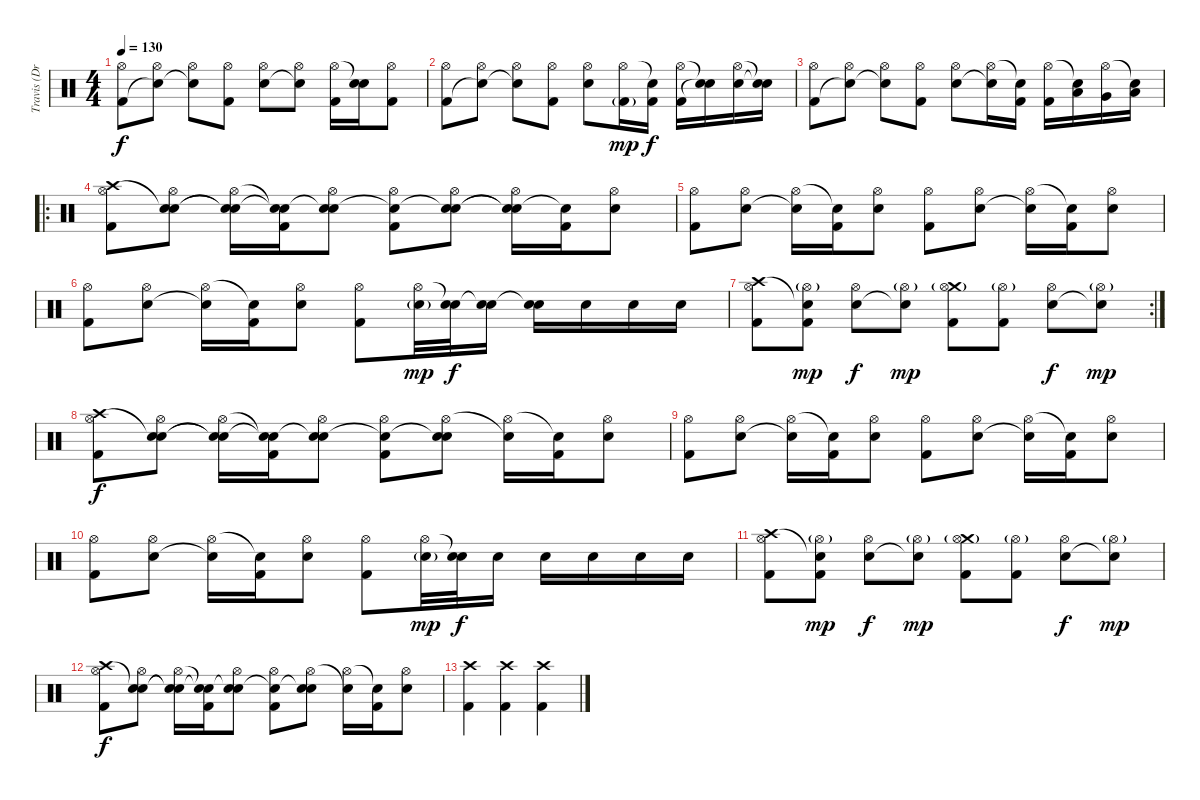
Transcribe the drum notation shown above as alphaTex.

\track ("Travis (Drums)" "Travis (Dr") {instrument percussion}
\staff {score}
\articulation defaults
\ts (4 4)
\tempo 130
\clef neutral
\ks c
("Hi-Hat (open)" "Kick (hit) 2").8{dy f} ("Hi-Hat (open)" "Snare (hit)"{t}).8 ("Hi-Hat (open)" "Snare (hit)"{t}).8 ("Hi-Hat (open)" "Kick (hit) 2").8 ("Hi-Hat (open)" "Electric Snare (hit)").8 ("Hi-Hat (open)" "Snare (hit)"{t}).8 ("Hi-Hat (open)" "Kick (hit) 2").16 ("Snare (hit)"{t} "Electric Snare (hit)").16 ("Hi-Hat (open)" "Kick (hit) 2").8 |
("Hi-Hat (open)" "Kick (hit) 2").8 ("Hi-Hat (open)" "Snare (hit)"{t}).8 ("Hi-Hat (open)" "Snare (hit)"{t}).8 ("Hi-Hat (open)" "Kick (hit) 2").8 ("Hi-Hat (open)" "Electric Snare (hit)").8 ("Hi-Hat (open)" "Kick (hit) 2"{g}).16{dy mp} ("Snare (hit)"{t} "Kick (hit) 2").16{dy f} ("Hi-Hat (open)" "Kick (hit) 2").16 ("Snare (hit)"{t} "Snare (hit)"{t}).16 ("Hi-Hat (open)" "Electric Snare (hit)").16 ("Snare (hit)"{t} "Snare (hit)"{t}).16 |
("Hi-Hat (open)" "Kick (hit) 2").8 ("Hi-Hat (open)" "Snare (hit)"{t}).8 ("Hi-Hat (open)" "Snare (hit)"{t}).8 ("Hi-Hat (open)" "Kick (hit) 2").8 ("Hi-Hat (open)" "Electric Snare (hit)").8 ("Hi-Hat (open)" "Snare (hit)"{t}).16 ("Snare (hit)"{t} "Kick (hit) 2").16 ("Hi-Hat (open)" "Kick (hit) 2").16 ("Snare (hit)"{t} "Low Tom (hit)").16 ("Hi-Hat (open)" "Very Low Tom (hit)").16 ("Snare (hit)"{t} "Low Floor Tom (hit)").16 |
\ro
("Crash high (hit)" "Hi-Hat (open)" "Kick (hit) 2").8 ("Snare (hit)"{t} "Hi-Hat (open)" "Electric Snare (hit)").8 ("Snare (hit)"{t} "Hi-Hat (open)" "Snare (hit)"{t}).16 ("Snare (hit)"{t} "Snare (hit)"{t} "Kick (hit) 2").16 ("Snare (hit)"{t} "Hi-Hat (open)" "Electric Snare (hit)").8 ("Snare (hit)"{t} "Hi-Hat (open)" "Kick (hit) 2").8 ("Snare (hit)"{t} "Hi-Hat (open)" "Electric Snare (hit)").8 ("Snare (hit)"{t} "Hi-Hat (open)" "Snare (hit)"{t}).16 ("Snare (hit)"{t} "Kick (hit) 2").16 ("Hi-Hat (open)" "Electric Snare (hit)").8 |
("Hi-Hat (open)" "Kick (hit) 2").8 ("Hi-Hat (open)" "Electric Snare (hit)").8 ("Hi-Hat (open)" "Snare (hit)"{t}).16 ("Snare (hit)"{t} "Kick (hit) 2").16 ("Hi-Hat (open)" "Electric Snare (hit)").8 ("Hi-Hat (open)" "Kick (hit) 2").8 ("Hi-Hat (open)" "Electric Snare (hit)").8 ("Hi-Hat (open)" "Snare (hit)"{t}).16 ("Snare (hit)"{t} "Kick (hit) 2").16 ("Hi-Hat (open)" "Electric Snare (hit)").8 |
("Hi-Hat (open)" "Kick (hit) 2").8 ("Hi-Hat (open)" "Electric Snare (hit)").8 ("Hi-Hat (open)" "Snare (hit)"{t}).16 ("Snare (hit)"{t} "Kick (hit) 2").16 ("Hi-Hat (open)" "Electric Snare (hit)").8 ("Hi-Hat (open)" "Kick (hit) 2").8 ("Hi-Hat (open)" "Electric Snare (hit)"{g}).32{dy mp} ("Snare (hit)"{t} "Electric Snare (hit)").32{dy f} ("Snare (hit)"{t} "Electric Snare (hit)").16 ("Snare (hit)"{t} "Electric Snare (hit)").16 "Electric Snare (hit)".16 "Electric Snare (hit)".16 "Electric Snare (hit)".16 |
\rc 2
("Crash high (hit)" "Hi-Hat (open)" "Kick (hit) 2").8 ("Snare (hit)"{t} "Hi-Hat (open)"{g} "Kick (hit) 2").8{dy mp} ("Hi-Hat (open)" "Electric Snare (hit)").8{dy f} ("Hi-Hat (open)"{g} "Snare (hit)"{t}).8{dy mp} ("Crash medium (hit)"{g} "Hi-Hat (open)" "Kick (hit) 2").8 ("Hi-Hat (open)"{g} "Kick (hit) 2").8 ("Hi-Hat (open)" "Electric Snare (hit)").8{dy f} ("Hi-Hat (open)"{g} "Snare (hit)"{t}).8{dy mp} |
("Crash high (hit)" "Hi-Hat (open)" "Kick (hit) 2").8{dy f} ("Snare (hit)"{t} "Hi-Hat (open)" "Electric Snare (hit)").8 ("Snare (hit)"{t} "Hi-Hat (open)" "Snare (hit)"{t}).16 ("Snare (hit)"{t} "Snare (hit)"{t} "Kick (hit) 2").16 ("Snare (hit)"{t} "Hi-Hat (open)" "Electric Snare (hit)").8 ("Snare (hit)"{t} "Hi-Hat (open)" "Kick (hit) 2").8 ("Snare (hit)"{t} "Hi-Hat (open)" "Electric Snare (hit)").8 ("Hi-Hat (open)" "Snare (hit)"{t}).16 ("Snare (hit)"{t} "Kick (hit) 2").16 ("Hi-Hat (open)" "Electric Snare (hit)").8 |
("Hi-Hat (open)" "Kick (hit) 2").8 ("Hi-Hat (open)" "Electric Snare (hit)").8 ("Hi-Hat (open)" "Snare (hit)"{t}).16 ("Snare (hit)"{t} "Kick (hit) 2").16 ("Hi-Hat (open)" "Electric Snare (hit)").8 ("Hi-Hat (open)" "Kick (hit) 2").8 ("Hi-Hat (open)" "Electric Snare (hit)").8 ("Hi-Hat (open)" "Snare (hit)"{t}).16 ("Snare (hit)"{t} "Kick (hit) 2").16 ("Hi-Hat (open)" "Electric Snare (hit)").8 |
("Hi-Hat (open)" "Kick (hit) 2").8 ("Hi-Hat (open)" "Electric Snare (hit)").8 ("Hi-Hat (open)" "Snare (hit)"{t}).16 ("Snare (hit)"{t} "Kick (hit) 2").16 ("Hi-Hat (open)" "Electric Snare (hit)").8 ("Hi-Hat (open)" "Kick (hit) 2").8 ("Hi-Hat (open)" "Electric Snare (hit)"{g}).32{dy mp} ("Snare (hit)"{t} "Electric Snare (hit)").32{dy f} "Electric Snare (hit)".16 "Electric Snare (hit)".16 "Electric Snare (hit)".16 "Electric Snare (hit)".16 "Electric Snare (hit)".16 |
("Crash high (hit)" "Hi-Hat (open)" "Kick (hit) 2").8 ("Snare (hit)"{t} "Hi-Hat (open)"{g} "Kick (hit) 2").8{dy mp} ("Hi-Hat (open)" "Electric Snare (hit)").8{dy f} ("Hi-Hat (open)"{g} "Snare (hit)"{t}).8{dy mp} ("Crash medium (hit)"{g} "Hi-Hat (open)" "Kick (hit) 2").8 ("Hi-Hat (open)"{g} "Kick (hit) 2").8 ("Hi-Hat (open)" "Electric Snare (hit)").8{dy f} ("Hi-Hat (open)"{g} "Snare (hit)"{t}).8{dy mp} |
("Crash high (hit)" "Hi-Hat (open)" "Kick (hit) 2").8{dy f} ("Snare (hit)"{t} "Hi-Hat (open)" "Electric Snare (hit)").8 ("Snare (hit)"{t} "Hi-Hat (open)" "Snare (hit)"{t}).16 ("Snare (hit)"{t} "Snare (hit)"{t} "Kick (hit) 2").16 ("Snare (hit)"{t} "Hi-Hat (open)" "Electric Snare (hit)").8 ("Snare (hit)"{t} "Hi-Hat (open)" "Kick (hit) 2").8 ("Snare (hit)"{t} "Hi-Hat (open)" "Electric Snare (hit)").8 ("Hi-Hat (open)" "Snare (hit)"{t}).16 ("Snare (hit)"{t} "Kick (hit) 2").16 ("Hi-Hat (open)" "Electric Snare (hit)").8 |
("Crash high (hit)" "Kick (hit) 2").4 ("Crash high (hit)" "Kick (hit) 2").4 ("Crash high (hit)" "Kick (hit) 2").4
